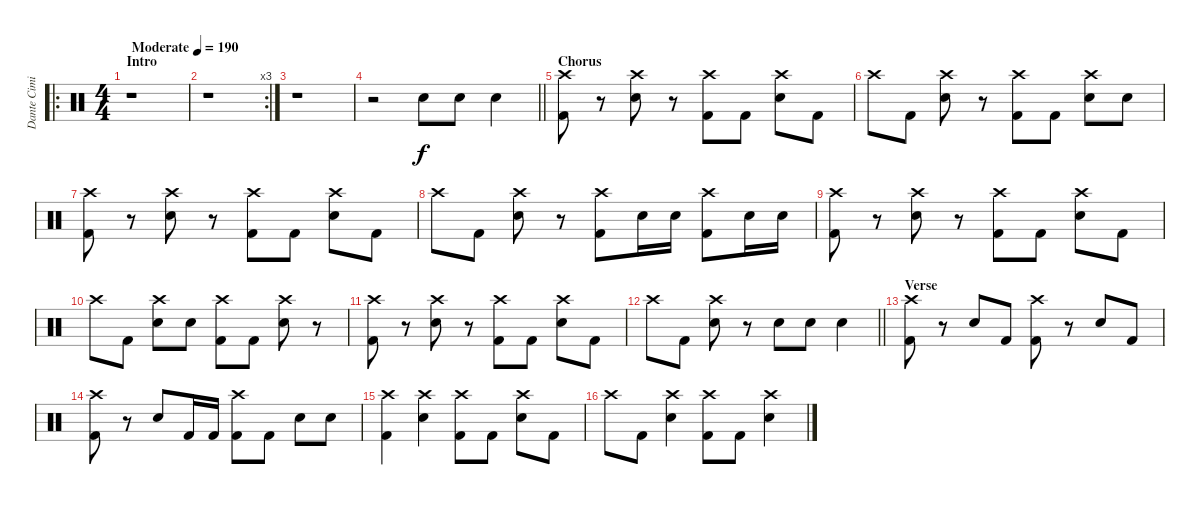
\track ("Dante Cimino" "Dante Cimi") {instrument percussion}
\staff {score}
\articulation defaults
\ro
\ts (4 4)
\section ("" "Intro")
\tempo (190 "Moderate")
\clef neutral
\ks c
r.1{dy f} |
\rc 3
r.1 |
r.1 |
\barLineRight lightlight
r.2 "Electric Snare (hit)".8 "Electric Snare (hit)".8 "Electric Snare (hit)".4 |
\section ("" "Chorus")
("Crash high (hit)" "Kick (hit) 2").8 r.8 ("Crash high (hit)" "Electric Snare (hit)").8 r.8 ("Crash high (hit)" "Kick (hit) 2").8 "Kick (hit) 2".8 ("Crash high (hit)" "Electric Snare (hit)").8 "Kick (hit) 2".8 |
"Crash high (hit)".8 "Kick (hit) 2".8 ("Crash high (hit)" "Electric Snare (hit)").8 r.8 ("Crash high (hit)" "Kick (hit) 2").8 "Kick (hit) 2".8 ("Crash high (hit)" "Electric Snare (hit)").8 "Electric Snare (hit)".8 |
("Crash high (hit)" "Kick (hit) 2").8 r.8 ("Crash high (hit)" "Electric Snare (hit)").8 r.8 ("Crash high (hit)" "Kick (hit) 2").8 "Kick (hit) 2".8 ("Crash high (hit)" "Electric Snare (hit)").8 "Kick (hit) 2".8 |
"Crash high (hit)".8 "Kick (hit) 2".8 ("Crash high (hit)" "Electric Snare (hit)").8 r.8 ("Crash high (hit)" "Kick (hit) 2").8 "Electric Snare (hit)".16 "Electric Snare (hit)".16 ("Crash high (hit)" "Kick (hit) 2").8 "Electric Snare (hit)".16 "Electric Snare (hit)".16 |
("Crash high (hit)" "Kick (hit) 2").8 r.8 ("Crash high (hit)" "Electric Snare (hit)").8 r.8 ("Crash high (hit)" "Kick (hit) 2").8 "Kick (hit) 2".8 ("Crash high (hit)" "Electric Snare (hit)").8 "Kick (hit) 2".8 |
"Crash high (hit)".8 "Kick (hit) 2".8 ("Crash high (hit)" "Electric Snare (hit)").8 "Electric Snare (hit)".8 ("Crash high (hit)" "Kick (hit) 2").8 "Kick (hit) 2".8 ("Crash high (hit)" "Electric Snare (hit)").8 r.8 |
("Crash high (hit)" "Kick (hit) 2").8 r.8 ("Crash high (hit)" "Electric Snare (hit)").8 r.8 ("Crash high (hit)" "Kick (hit) 2").8 "Kick (hit) 2".8 ("Crash high (hit)" "Electric Snare (hit)").8 "Kick (hit) 2".8 |
\barLineRight lightlight "Crash high (hit)".8 "Kick (hit) 2".8
("Crash high (hit)" "Electric Snare (hit)").8 r.8 "Electric Snare (hit)".8 "Electric Snare (hit)".8 "Electric Snare (hit)".4 |
\section ("" "Verse")
("Crash high (hit)" "Kick (hit) 2").8 r.8 "Electric Snare (hit)".8 "Kick (hit) 2".8 ("Crash high (hit)" "Kick (hit) 2").8 r.8 "Electric Snare (hit)".8 "Kick (hit) 2".8 |
("Crash high (hit)" "Kick (hit) 2").8 r.8 "Electric Snare (hit)".8 "Kick (hit) 2".16 "Kick (hit) 2".16 ("Crash high (hit)" "Kick (hit) 2").8 "Kick (hit) 2".8 "Electric Snare (hit)".8 "Electric Snare (hit)".8 |
("Crash high (hit)" "Kick (hit) 2").4 ("Crash high (hit)" "Electric Snare (hit)").4 ("Crash high (hit)" "Kick (hit) 2").8 "Kick (hit) 2".8 ("Crash high (hit)" "Electric Snare (hit)").8 "Kick (hit) 2".8 |
"Crash high (hit)".8 "Kick (hit) 2".8 ("Crash high (hit)" "Electric Snare (hit)").4 ("Crash high (hit)" "Kick (hit) 2").8 "Kick (hit) 2".8 ("Crash high (hit)" "Electric Snare (hit)").4
